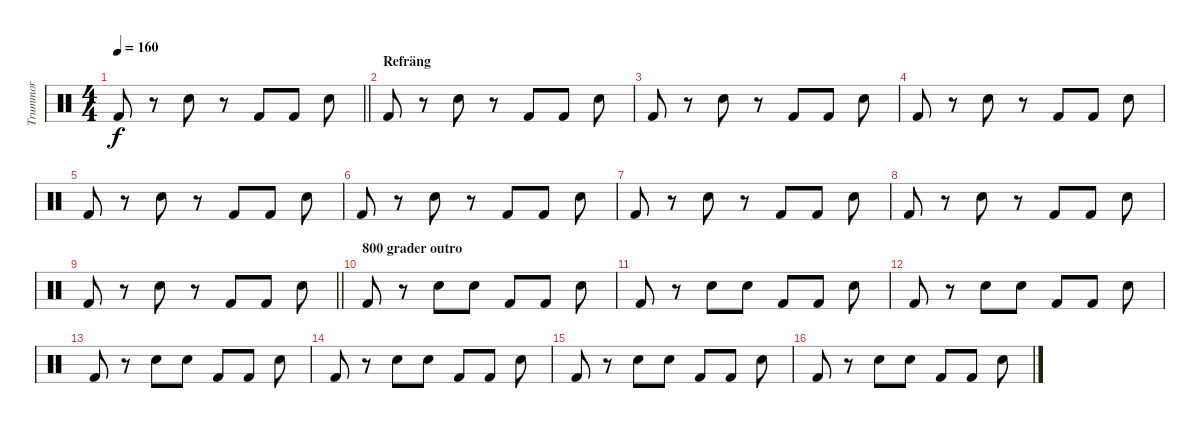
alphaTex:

\track ("Trummor" "Trummor") {instrument percussion}
\staff {score}
\articulation defaults
\ts (4 4)
\tempo 160
\clef neutral
\barLineRight lightlight
\ks c "Kick (hit) 2".8{dy f}
r.8 "Snare (hit) 2".8 r.8 "Kick (hit) 2".8 "Kick (hit) 2".8 "Snare (hit) 2".8 |
\section ("" "Refräng")
"Kick (hit) 2".8 r.8 "Snare (hit) 2".8 r.8 "Kick (hit) 2".8 "Kick (hit) 2".8 "Snare (hit) 2".8 |
"Kick (hit) 2".8 r.8 "Snare (hit) 2".8 r.8 "Kick (hit) 2".8 "Kick (hit) 2".8 "Snare (hit) 2".8 |
"Kick (hit) 2".8 r.8 "Snare (hit) 2".8 r.8 "Kick (hit) 2".8 "Kick (hit) 2".8 "Snare (hit) 2".8 |
"Kick (hit) 2".8 r.8 "Snare (hit) 2".8 r.8 "Kick (hit) 2".8 "Kick (hit) 2".8 "Snare (hit) 2".8 |
"Kick (hit) 2".8 r.8 "Snare (hit) 2".8 r.8 "Kick (hit) 2".8 "Kick (hit) 2".8 "Snare (hit) 2".8 |
"Kick (hit) 2".8 r.8 "Snare (hit) 2".8 r.8 "Kick (hit) 2".8 "Kick (hit) 2".8 "Snare (hit) 2".8 |
"Kick (hit) 2".8 r.8 "Snare (hit) 2".8 r.8 "Kick (hit) 2".8 "Kick (hit) 2".8 "Snare (hit) 2".8 |
\barLineRight lightlight "Kick (hit) 2".8
r.8 "Snare (hit) 2".8 r.8 "Kick (hit) 2".8 "Kick (hit) 2".8 "Snare (hit) 2".8 |
\section ("" "800 grader outro")
"Kick (hit) 2".8 r.8 "Snare (hit) 2".8 "Snare (hit) 2".8 "Kick (hit) 2".8 "Kick (hit) 2".8 "Snare (hit) 2".8 |
"Kick (hit) 2".8 r.8 "Snare (hit) 2".8 "Snare (hit) 2".8 "Kick (hit) 2".8 "Kick (hit) 2".8 "Snare (hit) 2".8 |
"Kick (hit) 2".8 r.8 "Snare (hit) 2".8 "Snare (hit) 2".8 "Kick (hit) 2".8 "Kick (hit) 2".8 "Snare (hit) 2".8 |
"Kick (hit) 2".8 r.8 "Snare (hit) 2".8 "Snare (hit) 2".8 "Kick (hit) 2".8 "Kick (hit) 2".8 "Snare (hit) 2".8 |
"Kick (hit) 2".8 r.8 "Snare (hit) 2".8 "Snare (hit) 2".8 "Kick (hit) 2".8 "Kick (hit) 2".8 "Snare (hit) 2".8 |
"Kick (hit) 2".8 r.8 "Snare (hit) 2".8 "Snare (hit) 2".8 "Kick (hit) 2".8 "Kick (hit) 2".8 "Snare (hit) 2".8 |
"Kick (hit) 2".8 r.8 "Snare (hit) 2".8 "Snare (hit) 2".8 "Kick (hit) 2".8 "Kick (hit) 2".8 "Snare (hit) 2".8
